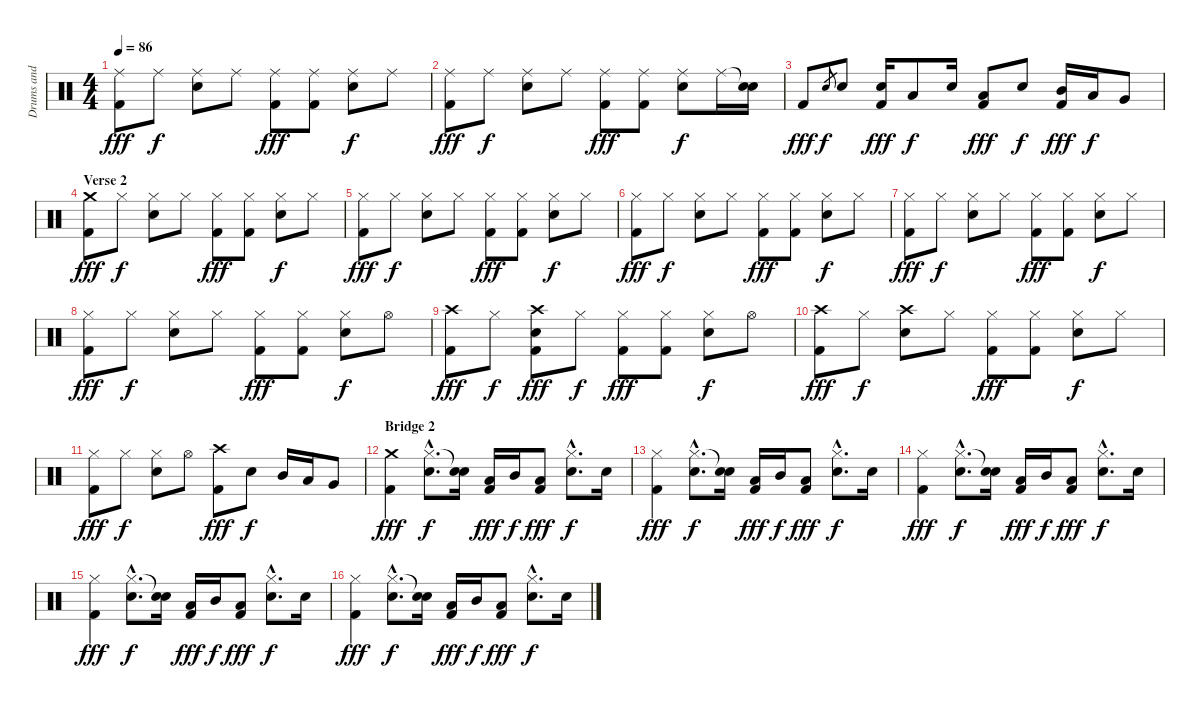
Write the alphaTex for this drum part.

\track ("Drums and Percussion" "Drums and ") {instrument percussion}
\staff {score}
\articulation defaults
\ts (4 4)
\tempo 86
\clef neutral
\ks c
("Ride (middle)" "Kick (hit) 2").8{dy fff} "Ride (middle)".8{dy f} ("Ride (middle)" "Snare (hit) 2").8 "Ride (middle)".8 ("Ride (middle)" "Kick (hit) 2").8{dy fff} ("Ride (middle)" "Kick (hit) 2").8 ("Ride (middle)" "Snare (hit) 2").8{dy f} "Ride (middle)".8 |
("Ride (middle)" "Kick (hit) 2").8{dy fff} "Ride (middle)".8{dy f} ("Ride (middle)" "Snare (hit) 2").8 "Ride (middle)".8 ("Ride (middle)" "Kick (hit) 2").8{dy fff} ("Ride (middle)" "Kick (hit) 2").8 ("Ride (middle)" "Snare (hit) 2").8{dy f} "Ride (middle)".16 ("Snare (hit)"{t} "Snare (hit) 2").16 |
"Kick (hit) 2".8{dy fff} "Snare (hit) 2".8{gr dy f} "Snare (hit) 2".8 ("Snare (hit) 2" "Kick (hit) 2").16{dy fff} "Low Tom (hit)".8{dy f} "Snare (hit) 2".16 ("Low Tom (hit)" "Kick (hit) 2").8{dy fff} "Snare (hit) 2".8{dy f} ("Mid Tom (hit)" "Kick (hit) 2").16{dy fff} "Low Tom (hit)".16{dy f} "Very Low Tom (hit)".8 |
\section ("" "Verse 2")
("Crash medium (hit)" "Kick (hit) 2").8{dy fff} "Hi-Hat (closed)".8{dy f} ("Hi-Hat (closed)" "Snare (hit) 2").8 "Hi-Hat (closed)".8 ("Hi-Hat (closed)" "Kick (hit) 2").8{dy fff} ("Hi-Hat (closed)" "Kick (hit) 2").8 ("Hi-Hat (closed)" "Snare (hit) 2").8{dy f} "Hi-Hat (closed)".8 |
("Hi-Hat (closed)" "Kick (hit) 2").8{dy fff} "Hi-Hat (closed)".8{dy f} ("Hi-Hat (closed)" "Snare (hit) 2").8 "Hi-Hat (closed)".8 ("Hi-Hat (closed)" "Kick (hit) 2").8{dy fff} ("Hi-Hat (closed)" "Kick (hit) 2").8 ("Hi-Hat (closed)" "Snare (hit) 2").8{dy f} "Hi-Hat (closed)".8 |
("Hi-Hat (closed)" "Kick (hit) 2").8{dy fff} "Hi-Hat (closed)".8{dy f} ("Hi-Hat (closed)" "Snare (hit) 2").8 "Hi-Hat (closed)".8 ("Hi-Hat (closed)" "Kick (hit) 2").8{dy fff} ("Hi-Hat (closed)" "Kick (hit) 2").8 ("Hi-Hat (closed)" "Snare (hit) 2").8{dy f} "Hi-Hat (closed)".8 |
("Hi-Hat (closed)" "Kick (hit) 2").8{dy fff} "Hi-Hat (closed)".8{dy f} ("Hi-Hat (closed)" "Snare (hit) 2").8 "Hi-Hat (closed)".8 ("Hi-Hat (closed)" "Kick (hit) 2").8{dy fff} ("Hi-Hat (closed)" "Kick (hit) 2").8 ("Hi-Hat (closed)" "Snare (hit) 2").8{dy f} "Hi-Hat (closed)".8 |
("Hi-Hat (closed)" "Kick (hit) 2").8{dy fff} "Hi-Hat (closed)".8{dy f} ("Hi-Hat (closed)" "Snare (hit) 2").8 "Hi-Hat (closed)".8 ("Hi-Hat (closed)" "Kick (hit) 2").8{dy fff} ("Hi-Hat (closed)" "Kick (hit) 2").8 ("Hi-Hat (closed)" "Snare (hit) 2").8{dy f} "Hi-Hat (open)".8 |
("Crash high (hit)" "Kick (hit) 2").8{dy fff} "Hi-Hat (closed)".8{dy f} ("Crash high (hit)" "Snare (hit) 2" "Kick (hit) 2").8{dy fff} "Hi-Hat (closed)".8{dy f} ("Hi-Hat (closed)" "Kick (hit) 2").8{dy fff} ("Hi-Hat (closed)" "Kick (hit) 2").8 ("Hi-Hat (closed)" "Snare (hit) 2").8{dy f} "Hi-Hat (open)".8 |
("Crash high (hit)" "Kick (hit) 2").8{dy fff} "Hi-Hat (closed)".8{dy f} ("Crash high (hit)" "Snare (hit) 2").8 "Hi-Hat (closed)".8 ("Hi-Hat (closed)" "Kick (hit) 2").8{dy fff} ("Hi-Hat (closed)" "Kick (hit) 2").8 ("Hi-Hat (closed)" "Snare (hit) 2").8{dy f} "Hi-Hat (closed)".8 |
("Hi-Hat (closed)" "Kick (hit) 2").8{dy fff} "Hi-Hat (closed)".8{dy f} ("Hi-Hat (closed)" "Snare (hit) 2").8 "Hi-Hat (open)".8 ("Crash high (hit)" "Kick (hit) 2").8{dy fff} "Snare (hit) 2".8{dy f} "Mid Tom (hit)".16 "Low Tom (hit)".16 "Very Low Tom (hit)".8 |
\section ("" "Bridge 2")
("Crash medium (hit)" "Kick (hit) 2").4{dy fff} ("Hi-Hat (closed)"{hac} "Snare (hit) 2"{hac}).8{d dy f} ("Snare (hit)"{t} "Snare (hit) 2").16 ("Low Tom (hit)" "Kick (hit) 2").16{dy fff} "Mid Tom (hit)".16{dy f} ("Low Tom (hit)" "Kick (hit) 2").8{dy fff} ("Hi-Hat (closed)"{hac} "Snare (hit) 2"{hac}).8{d dy f} "Snare (hit) 2".16 |
("Hi-Hat (closed)" "Kick (hit) 2").4{dy fff} ("Hi-Hat (closed)"{hac} "Snare (hit) 2"{hac}).8{d dy f} ("Snare (hit)"{t} "Snare (hit) 2").16 ("Low Tom (hit)" "Kick (hit) 2").16{dy fff} "Mid Tom (hit)".16{dy f} ("Low Tom (hit)" "Kick (hit) 2").8{dy fff} ("Hi-Hat (closed)"{hac} "Snare (hit) 2"{hac}).8{d dy f} "Snare (hit) 2".16 |
("Hi-Hat (closed)" "Kick (hit) 2").4{dy fff} ("Hi-Hat (closed)"{hac} "Snare (hit) 2"{hac}).8{d dy f} ("Snare (hit)"{t} "Snare (hit) 2").16 ("Low Tom (hit)" "Kick (hit) 2").16{dy fff} "Mid Tom (hit)".16{dy f} ("Low Tom (hit)" "Kick (hit) 2").8{dy fff} ("Hi-Hat (closed)"{hac} "Snare (hit) 2"{hac}).8{d dy f} "Snare (hit) 2".16 |
("Hi-Hat (closed)" "Kick (hit) 2").4{dy fff} ("Hi-Hat (closed)"{hac} "Snare (hit) 2"{hac}).8{d dy f} ("Snare (hit)"{t} "Snare (hit) 2").16 ("Low Tom (hit)" "Kick (hit) 2").16{dy fff} "Mid Tom (hit)".16{dy f} ("Low Tom (hit)" "Kick (hit) 2").8{dy fff} ("Hi-Hat (closed)"{hac} "Snare (hit) 2"{hac}).8{d dy f} "Snare (hit) 2".16 |
("Hi-Hat (closed)" "Kick (hit) 2").4{dy fff} ("Hi-Hat (closed)"{hac} "Snare (hit) 2"{hac}).8{d dy f} ("Snare (hit)"{t} "Snare (hit) 2").16 ("Low Tom (hit)" "Kick (hit) 2").16{dy fff} "Mid Tom (hit)".16{dy f} ("Low Tom (hit)" "Kick (hit) 2").8{dy fff} ("Hi-Hat (closed)"{hac} "Snare (hit) 2"{hac}).8{d dy f} "Snare (hit) 2".16
